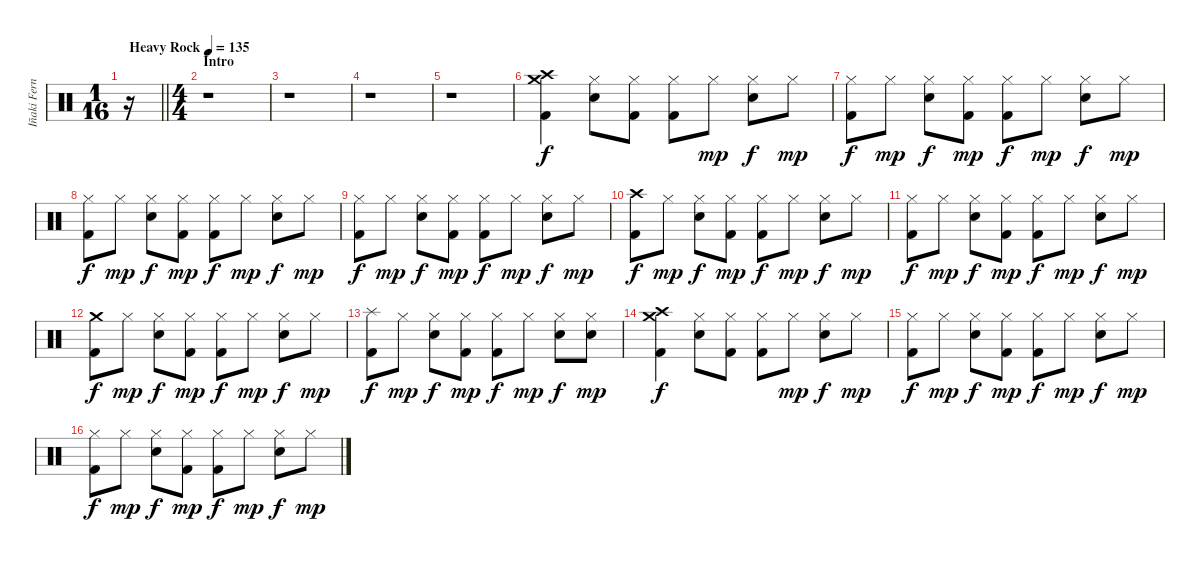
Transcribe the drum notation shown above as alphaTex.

\track ("Iñaki Fernández" "Iñaki Fern") {instrument percussion}
\staff {score}
\articulation defaults
\ts (1 16)
\tempo (135 "Heavy Rock")
\clef neutral
\barLineRight lightlight
\ks c
r.16{dy f} |
\ts (4 4)
\section ("" "Intro")
r.1 |
r.1 |
r.1 |
r.1 |
("Crash medium (hit)" "Crash high (hit)" "Kick (hit) 2").4 ("Hi-Hat (closed)" "Snare (hit) 2").8 ("Hi-Hat (closed)" "Kick (hit) 2").8 ("Hi-Hat (closed)" "Kick (hit) 2").8 "Hi-Hat (closed)".8{dy mp} ("Hi-Hat (closed)" "Snare (hit) 2").8{dy f} "Hi-Hat (closed)".8{dy mp} |
("Hi-Hat (closed)" "Kick (hit) 2").8{dy f} "Hi-Hat (closed)".8{dy mp} ("Hi-Hat (closed)" "Snare (hit) 2").8{dy f} ("Hi-Hat (closed)" "Kick (hit) 2").8{dy mp} ("Hi-Hat (closed)" "Kick (hit) 2").8{dy f} "Hi-Hat (closed)".8{dy mp} ("Hi-Hat (closed)" "Snare (hit) 2").8{dy f} "Hi-Hat (closed)".8{dy mp} |
("Hi-Hat (closed)" "Kick (hit) 2").8{dy f} "Hi-Hat (closed)".8{dy mp} ("Hi-Hat (closed)" "Snare (hit) 2").8{dy f} ("Hi-Hat (closed)" "Kick (hit) 2").8{dy mp} ("Hi-Hat (closed)" "Kick (hit) 2").8{dy f} "Hi-Hat (closed)".8{dy mp} ("Hi-Hat (closed)" "Snare (hit) 2").8{dy f} "Hi-Hat (closed)".8{dy mp} |
("Hi-Hat (closed)" "Kick (hit) 2").8{dy f} "Hi-Hat (closed)".8{dy mp} ("Hi-Hat (closed)" "Snare (hit) 2").8{dy f} ("Hi-Hat (closed)" "Kick (hit) 2").8{dy mp} ("Hi-Hat (closed)" "Kick (hit) 2").8{dy f} "Hi-Hat (closed)".8{dy mp} ("Hi-Hat (closed)" "Snare (hit) 2").8{dy f} "Hi-Hat (closed)".8{dy mp} |
("Crash high (hit)" "Kick (hit) 2").8{dy f} "Hi-Hat (closed)".8{dy mp} ("Hi-Hat (closed)" "Snare (hit) 2").8{dy f} ("Hi-Hat (closed)" "Kick (hit) 2").8{dy mp} ("Hi-Hat (closed)" "Kick (hit) 2").8{dy f} "Hi-Hat (closed)".8{dy mp} ("Hi-Hat (closed)" "Snare (hit) 2").8{dy f} "Hi-Hat (closed)".8{dy mp} |
("Hi-Hat (closed)" "Kick (hit) 2").8{dy f} "Hi-Hat (closed)".8{dy mp} ("Hi-Hat (closed)" "Snare (hit) 2").8{dy f} ("Hi-Hat (closed)" "Kick (hit) 2").8{dy mp} ("Hi-Hat (closed)" "Kick (hit) 2").8{dy f} "Hi-Hat (closed)".8{dy mp} ("Hi-Hat (closed)" "Snare (hit) 2").8{dy f} "Hi-Hat (closed)".8{dy mp} |
("Crash medium (hit)" "Kick (hit) 2").8{dy f} "Hi-Hat (closed)".8{dy mp} ("Hi-Hat (closed)" "Snare (hit) 2").8{dy f} ("Hi-Hat (closed)" "Kick (hit) 2").8{dy mp} ("Hi-Hat (closed)" "Kick (hit) 2").8{dy f} "Hi-Hat (closed)".8{dy mp} ("Hi-Hat (closed)" "Snare (hit) 2").8{dy f} "Hi-Hat (closed)".8{dy mp} |
("Splash (hit)" "Kick (hit) 2").8{dy f} "Hi-Hat (closed)".8{dy mp} ("Hi-Hat (closed)" "Snare (hit) 2").8{dy f} ("Hi-Hat (closed)" "Kick (hit) 2").8{dy mp} ("Hi-Hat (closed)" "Kick (hit) 2").8{dy f} "Hi-Hat (closed)".8{dy mp} ("Hi-Hat (closed)" "Snare (hit) 2").8{dy f} ("Hi-Hat (closed)" "Snare (hit) 2").8{dy mp} |
("Crash medium (hit)" "Crash high (hit)" "Kick (hit) 2").4{dy f} ("Hi-Hat (closed)" "Snare (hit) 2").8 ("Hi-Hat (closed)" "Kick (hit) 2").8 ("Hi-Hat (closed)" "Kick (hit) 2").8 "Hi-Hat (closed)".8{dy mp} ("Hi-Hat (closed)" "Snare (hit) 2").8{dy f} "Hi-Hat (closed)".8{dy mp} |
("Hi-Hat (closed)" "Kick (hit) 2").8{dy f} "Hi-Hat (closed)".8{dy mp} ("Hi-Hat (closed)" "Snare (hit) 2").8{dy f} ("Hi-Hat (closed)" "Kick (hit) 2").8{dy mp} ("Hi-Hat (closed)" "Kick (hit) 2").8{dy f} "Hi-Hat (closed)".8{dy mp} ("Hi-Hat (closed)" "Snare (hit) 2").8{dy f} "Hi-Hat (closed)".8{dy mp} |
("Hi-Hat (closed)" "Kick (hit) 2").8{dy f} "Hi-Hat (closed)".8{dy mp} ("Hi-Hat (closed)" "Snare (hit) 2").8{dy f} ("Hi-Hat (closed)" "Kick (hit) 2").8{dy mp} ("Hi-Hat (closed)" "Kick (hit) 2").8{dy f} "Hi-Hat (closed)".8{dy mp} ("Hi-Hat (closed)" "Snare (hit) 2").8{dy f} "Hi-Hat (closed)".8{dy mp}
